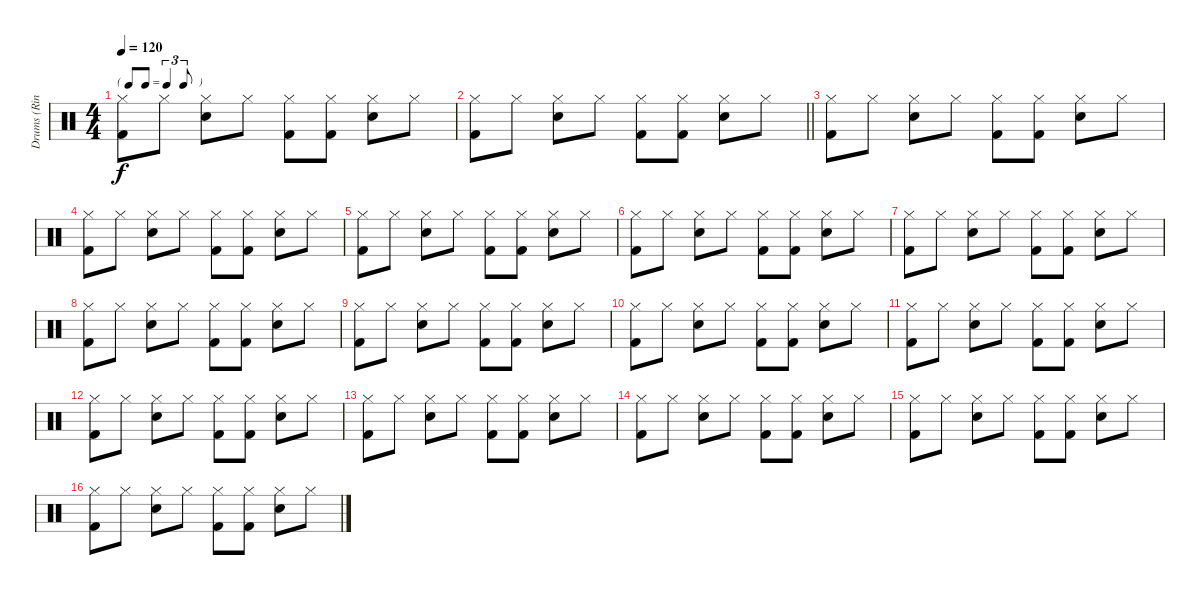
\track ("Drums (Ringo Starr)" "Drums (Rin") {instrument percussion}
\staff {score}
\articulation defaults
\ts (4 4)
\tf triplet8th
\tempo 120
\clef neutral
\ks c
("Hi-Hat (closed)" "Kick (hit) 2").8{dy f} "Hi-Hat (closed)".8 ("Hi-Hat (closed)" "Snare (hit) 2").8 "Hi-Hat (closed)".8 ("Hi-Hat (closed)" "Kick (hit) 2").8 ("Hi-Hat (closed)" "Kick (hit) 2").8 ("Hi-Hat (closed)" "Snare (hit) 2").8 "Hi-Hat (closed)".8 |
\barLineRight lightlight
("Hi-Hat (closed)" "Kick (hit) 2").8 "Hi-Hat (closed)".8 ("Hi-Hat (closed)" "Snare (hit) 2").8 "Hi-Hat (closed)".8 ("Hi-Hat (closed)" "Kick (hit) 2").8 ("Hi-Hat (closed)" "Kick (hit) 2").8 ("Hi-Hat (closed)" "Snare (hit) 2").8 "Hi-Hat (closed)".8 |
("Hi-Hat (closed)" "Kick (hit) 2").8 "Hi-Hat (closed)".8 ("Hi-Hat (closed)" "Snare (hit) 2").8 "Hi-Hat (closed)".8 ("Hi-Hat (closed)" "Kick (hit) 2").8 ("Hi-Hat (closed)" "Kick (hit) 2").8 ("Hi-Hat (closed)" "Snare (hit) 2").8 "Hi-Hat (closed)".8 |
("Hi-Hat (closed)" "Kick (hit) 2").8 "Hi-Hat (closed)".8 ("Hi-Hat (closed)" "Snare (hit) 2").8 "Hi-Hat (closed)".8 ("Hi-Hat (closed)" "Kick (hit) 2").8 ("Hi-Hat (closed)" "Kick (hit) 2").8 ("Hi-Hat (closed)" "Snare (hit) 2").8 "Hi-Hat (closed)".8 |
("Hi-Hat (closed)" "Kick (hit) 2").8 "Hi-Hat (closed)".8 ("Hi-Hat (closed)" "Snare (hit) 2").8 "Hi-Hat (closed)".8 ("Hi-Hat (closed)" "Kick (hit) 2").8 ("Hi-Hat (closed)" "Kick (hit) 2").8 ("Hi-Hat (closed)" "Snare (hit) 2").8 "Hi-Hat (closed)".8 |
("Hi-Hat (closed)" "Kick (hit) 2").8 "Hi-Hat (closed)".8 ("Hi-Hat (closed)" "Snare (hit) 2").8 "Hi-Hat (closed)".8 ("Hi-Hat (closed)" "Kick (hit) 2").8 ("Hi-Hat (closed)" "Kick (hit) 2").8 ("Hi-Hat (closed)" "Snare (hit) 2").8 "Hi-Hat (closed)".8 |
("Hi-Hat (closed)" "Kick (hit) 2").8 "Hi-Hat (closed)".8 ("Hi-Hat (closed)" "Snare (hit) 2").8 "Hi-Hat (closed)".8 ("Hi-Hat (closed)" "Kick (hit) 2").8 ("Hi-Hat (closed)" "Kick (hit) 2").8 ("Hi-Hat (closed)" "Snare (hit) 2").8 "Hi-Hat (closed)".8 |
("Hi-Hat (closed)" "Kick (hit) 2").8 "Hi-Hat (closed)".8 ("Hi-Hat (closed)" "Snare (hit) 2").8 "Hi-Hat (closed)".8 ("Hi-Hat (closed)" "Kick (hit) 2").8 ("Hi-Hat (closed)" "Kick (hit) 2").8 ("Hi-Hat (closed)" "Snare (hit) 2").8 "Hi-Hat (closed)".8 |
("Hi-Hat (closed)" "Kick (hit) 2").8 "Hi-Hat (closed)".8 ("Hi-Hat (closed)" "Snare (hit) 2").8 "Hi-Hat (closed)".8 ("Hi-Hat (closed)" "Kick (hit) 2").8 ("Hi-Hat (closed)" "Kick (hit) 2").8 ("Hi-Hat (closed)" "Snare (hit) 2").8 "Hi-Hat (closed)".8 |
("Hi-Hat (closed)" "Kick (hit) 2").8 "Hi-Hat (closed)".8 ("Hi-Hat (closed)" "Snare (hit) 2").8 "Hi-Hat (closed)".8 ("Hi-Hat (closed)" "Kick (hit) 2").8 ("Hi-Hat (closed)" "Kick (hit) 2").8 ("Hi-Hat (closed)" "Snare (hit) 2").8 "Hi-Hat (closed)".8 |
("Hi-Hat (closed)" "Kick (hit) 2").8 "Hi-Hat (closed)".8 ("Hi-Hat (closed)" "Snare (hit) 2").8 "Hi-Hat (closed)".8 ("Hi-Hat (closed)" "Kick (hit) 2").8 ("Hi-Hat (closed)" "Kick (hit) 2").8 ("Hi-Hat (closed)" "Snare (hit) 2").8 "Hi-Hat (closed)".8 |
("Hi-Hat (closed)" "Kick (hit) 2").8 "Hi-Hat (closed)".8 ("Hi-Hat (closed)" "Snare (hit) 2").8 "Hi-Hat (closed)".8 ("Hi-Hat (closed)" "Kick (hit) 2").8 ("Hi-Hat (closed)" "Kick (hit) 2").8 ("Hi-Hat (closed)" "Snare (hit) 2").8 "Hi-Hat (closed)".8 |
("Hi-Hat (closed)" "Kick (hit) 2").8 "Hi-Hat (closed)".8 ("Hi-Hat (closed)" "Snare (hit) 2").8 "Hi-Hat (closed)".8 ("Hi-Hat (closed)" "Kick (hit) 2").8 ("Hi-Hat (closed)" "Kick (hit) 2").8 ("Hi-Hat (closed)" "Snare (hit) 2").8 "Hi-Hat (closed)".8 |
("Hi-Hat (closed)" "Kick (hit) 2").8 "Hi-Hat (closed)".8 ("Hi-Hat (closed)" "Snare (hit) 2").8 "Hi-Hat (closed)".8 ("Hi-Hat (closed)" "Kick (hit) 2").8 ("Hi-Hat (closed)" "Kick (hit) 2").8 ("Hi-Hat (closed)" "Snare (hit) 2").8 "Hi-Hat (closed)".8 |
("Hi-Hat (closed)" "Kick (hit) 2").8 "Hi-Hat (closed)".8 ("Hi-Hat (closed)" "Snare (hit) 2").8 "Hi-Hat (closed)".8 ("Hi-Hat (closed)" "Kick (hit) 2").8 ("Hi-Hat (closed)" "Kick (hit) 2").8 ("Hi-Hat (closed)" "Snare (hit) 2").8 "Hi-Hat (closed)".8 |
("Hi-Hat (closed)" "Kick (hit) 2").8 "Hi-Hat (closed)".8 ("Hi-Hat (closed)" "Snare (hit) 2").8 "Hi-Hat (closed)".8 ("Hi-Hat (closed)" "Kick (hit) 2").8 ("Hi-Hat (closed)" "Kick (hit) 2").8 ("Hi-Hat (closed)" "Snare (hit) 2").8 "Hi-Hat (closed)".8
